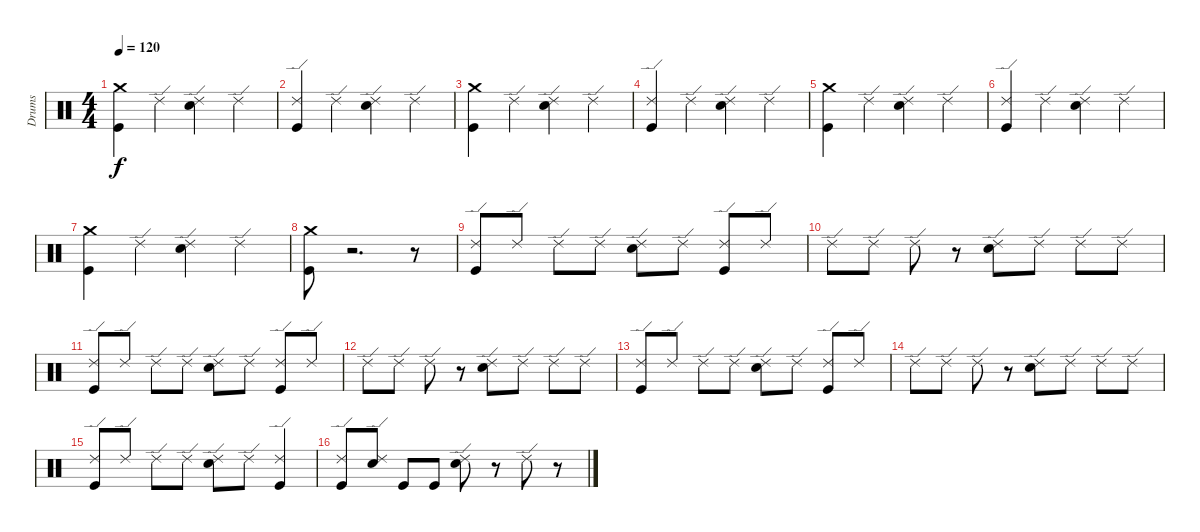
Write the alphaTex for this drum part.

\track ("Drums" "Drums") {instrument percussion}
\staff {score}
\articulation defaults
\ts (4 4)
\tempo 120
\clef neutral
\ks c
("Crash medium (hit)" "Kick (hit)").4{dy f} "Ride (edge) 2".4 ("Snare (hit) 2" "Ride (edge) 2").4 "Ride (edge) 2".4 |
("Ride (edge) 2" "Kick (hit)").4 "Ride (edge) 2".4 ("Ride (edge) 2" "Snare (hit) 2").4 "Ride (edge) 2".4 |
("Crash medium (hit)" "Kick (hit)").4 "Ride (edge) 2".4 ("Snare (hit) 2" "Ride (edge) 2").4 "Ride (edge) 2".4 |
("Ride (edge) 2" "Kick (hit)").4 "Ride (edge) 2".4 ("Ride (edge) 2" "Snare (hit) 2").4 "Ride (edge) 2".4 |
("Crash medium (hit)" "Kick (hit)").4 "Ride (edge) 2".4 ("Snare (hit) 2" "Ride (edge) 2").4 "Ride (edge) 2".4 |
("Ride (edge) 2" "Kick (hit)").4 "Ride (edge) 2".4 ("Ride (edge) 2" "Snare (hit) 2").4 "Ride (edge) 2".4 |
("Crash medium (hit)" "Kick (hit)").4 "Ride (edge) 2".4 ("Ride (edge) 2" "Snare (hit) 2").4 "Ride (edge) 2".4 |
("Crash medium (hit)" "Kick (hit)").8 r.2{d} r.8 |
("Ride (edge) 2" "Kick (hit)").8 "Ride (edge) 2".8 "Ride (edge) 2".8 "Ride (edge) 2".8 ("Ride (edge) 2" "Snare (hit) 2").8 "Ride (edge) 2".8 ("Ride (edge) 2" "Kick (hit)").8 "Ride (edge) 2".8 |
"Ride (edge) 2".8 "Ride (edge) 2".8 "Ride (edge) 2".8 r.8 ("Snare (hit) 2" "Ride (edge) 2").8 "Ride (edge) 2".8 "Ride (edge) 2".8 "Ride (edge) 2".8 |
("Ride (edge) 2" "Kick (hit)").8 "Ride (edge) 2".8 "Ride (edge) 2".8 "Ride (edge) 2".8 ("Ride (edge) 2" "Snare (hit) 2").8 "Ride (edge) 2".8 ("Ride (edge) 2" "Kick (hit)").8 "Ride (edge) 2".8 |
"Ride (edge) 2".8 "Ride (edge) 2".8 "Ride (edge) 2".8 r.8 ("Snare (hit) 2" "Ride (edge) 2").8 "Ride (edge) 2".8 "Ride (edge) 2".8 "Ride (edge) 2".8 |
("Ride (edge) 2" "Kick (hit)").8 "Ride (edge) 2".8 "Ride (edge) 2".8 "Ride (edge) 2".8 ("Ride (edge) 2" "Snare (hit) 2").8 "Ride (edge) 2".8 ("Ride (edge) 2" "Kick (hit)").8 "Ride (edge) 2".8 |
"Ride (edge) 2".8 "Ride (edge) 2".8 "Ride (edge) 2".8 r.8 ("Snare (hit) 2" "Ride (edge) 2").8 "Ride (edge) 2".8 "Ride (edge) 2".8 "Ride (edge) 2".8 |
("Ride (edge) 2" "Kick (hit)").8 "Ride (edge) 2".8 "Ride (edge) 2".8 "Ride (edge) 2".8 ("Ride (edge) 2" "Snare (hit) 2").8 "Ride (edge) 2".8 ("Ride (edge) 2" "Kick (hit)").4 |
("Ride (edge) 2" "Kick (hit)").8 ("Ride (edge) 2" "Snare (hit) 2").8 "Kick (hit)".8 "Kick (hit)".8 ("Ride (edge) 2" "Snare (hit) 2").8 r.8 "Ride (edge) 2".8 r.8
